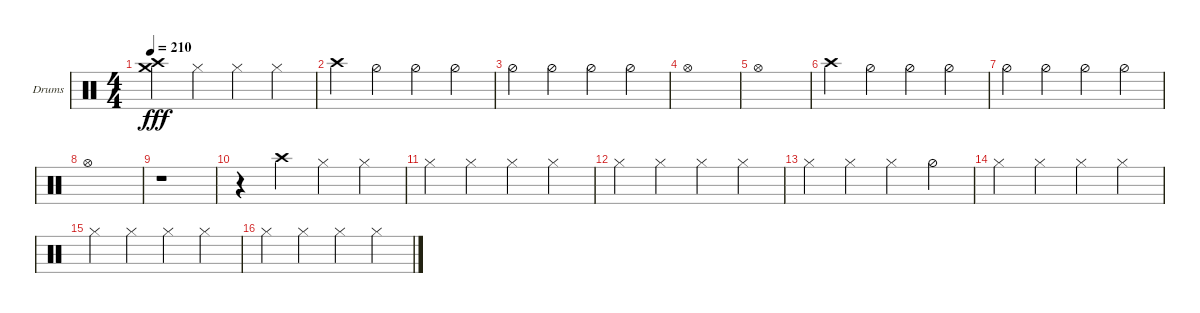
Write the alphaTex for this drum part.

\defaultSystemsLayout 4
\bracketExtendMode groupsimilarinstruments
\firstSystemTrackNameOrientation horizontal
\otherSystemsTrackNameOrientation horizontal
\track ("Helders" "Drums") {instrument percussion}
\staff {score}
\articulation defaults
\ts (4 4)
\tempo 210
\clef neutral
\ks c
("Crash high (hit)" "Crash medium (hit)").4{dy fff} "Hi-Hat (closed)".4 "Hi-Hat (closed)".4 "Hi-Hat (closed)".4 |
"Crash high (hit)".4 "Hi-Hat (half)".4 "Hi-Hat (half)".4 "Hi-Hat (half)".4 |
"Hi-Hat (half)".4 "Hi-Hat (half)".4 "Hi-Hat (half)".4 "Hi-Hat (half)".4 |
"Hi-Hat (open)".1 |
"Hi-Hat (open)".1 |
"Crash high (hit)".4 "Hi-Hat (half)".4 "Hi-Hat (half)".4 "Hi-Hat (half)".4 |
"Hi-Hat (half)".4 "Hi-Hat (half)".4 "Hi-Hat (half)".4 "Hi-Hat (half)".4 |
"Hi-Hat (open)".1 |
r.1 |
r.4 "Crash high (hit)".4 "Hi-Hat (closed)".4 "Hi-Hat (closed)".4 |
"Hi-Hat (closed)".4 "Hi-Hat (closed)".4 "Hi-Hat (closed)".4 "Hi-Hat (closed)".4 |
"Hi-Hat (closed)".4 "Hi-Hat (closed)".4 "Hi-Hat (closed)".4 "Hi-Hat (closed)".4 |
"Hi-Hat (closed)".4 "Hi-Hat (closed)".4 "Hi-Hat (closed)".4 "Hi-Hat (half)".4 |
"Hi-Hat (closed)".4 "Hi-Hat (closed)".4 "Hi-Hat (closed)".4 "Hi-Hat (closed)".4 |
"Hi-Hat (closed)".4 "Hi-Hat (closed)".4 "Hi-Hat (closed)".4 "Hi-Hat (closed)".4 |
"Hi-Hat (closed)".4 "Hi-Hat (closed)".4 "Hi-Hat (closed)".4 "Hi-Hat (closed)".4
